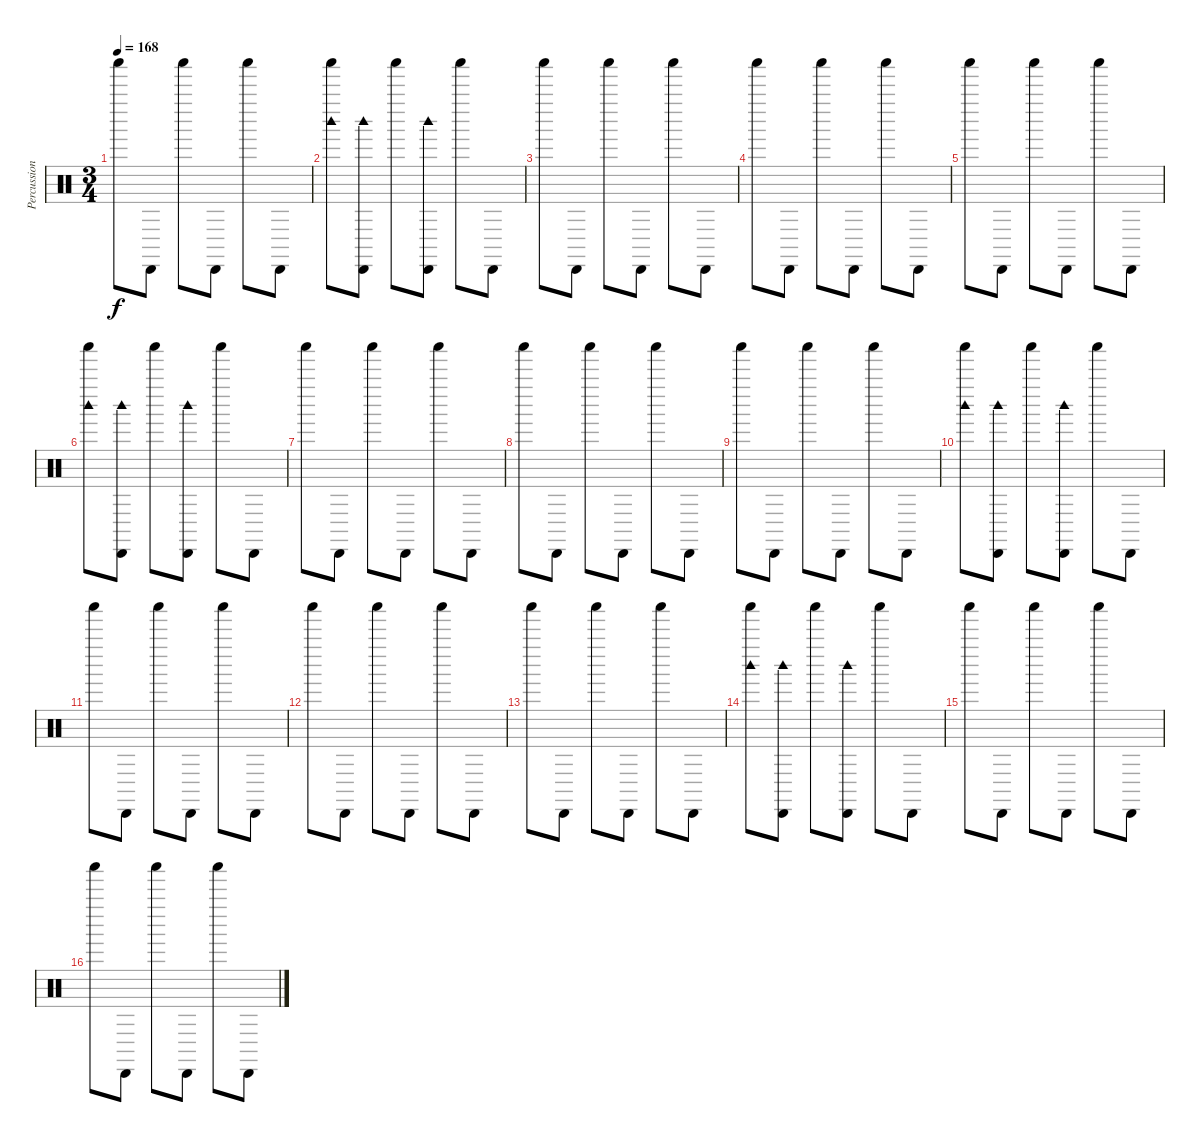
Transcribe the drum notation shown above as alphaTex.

\track ("Percussion" "Percussion") {instrument percussion}
\staff {score}
\articulation defaults
\ts (3 4)
\tempo 168
\clef neutral
\ks c "Shaker (hit)".8{dy f} "Cabasa (hit)".8 "Shaker (hit)".8 "Cabasa (hit)".8 "Shaker (hit)".8 "Cabasa (hit)".8
|
("Shaker (hit)" "Woodblock high (hit)").8 ("Cabasa (hit)" "Woodblock high (hit)").8 "Shaker (hit)".8 ("Cabasa (hit)" "Woodblock high (hit)").8 "Shaker (hit)".8 "Cabasa (hit)".8 |
"Shaker (hit)".8 "Cabasa (hit)".8 "Shaker (hit)".8 "Cabasa (hit)".8 "Shaker (hit)".8 "Cabasa (hit)".8 |
"Shaker (hit)".8 "Cabasa (hit)".8 "Shaker (hit)".8 "Cabasa (hit)".8 "Shaker (hit)".8 "Cabasa (hit)".8 |
"Shaker (hit)".8 "Cabasa (hit)".8 "Shaker (hit)".8 "Cabasa (hit)".8 "Shaker (hit)".8 "Cabasa (hit)".8 |
("Shaker (hit)" "Woodblock high (hit)").8 ("Cabasa (hit)" "Woodblock high (hit)").8 "Shaker (hit)".8 ("Cabasa (hit)" "Woodblock high (hit)").8 "Shaker (hit)".8 "Cabasa (hit)".8 |
"Shaker (hit)".8 "Cabasa (hit)".8 "Shaker (hit)".8 "Cabasa (hit)".8 "Shaker (hit)".8 "Cabasa (hit)".8 |
"Shaker (hit)".8 "Cabasa (hit)".8 "Shaker (hit)".8 "Cabasa (hit)".8 "Shaker (hit)".8 "Cabasa (hit)".8 |
"Shaker (hit)".8 "Cabasa (hit)".8 "Shaker (hit)".8 "Cabasa (hit)".8 "Shaker (hit)".8 "Cabasa (hit)".8 |
("Shaker (hit)" "Woodblock high (hit)").8 ("Cabasa (hit)" "Woodblock high (hit)").8 "Shaker (hit)".8 ("Cabasa (hit)" "Woodblock high (hit)").8 "Shaker (hit)".8 "Cabasa (hit)".8 |
"Shaker (hit)".8 "Cabasa (hit)".8 "Shaker (hit)".8 "Cabasa (hit)".8 "Shaker (hit)".8 "Cabasa (hit)".8 |
"Shaker (hit)".8 "Cabasa (hit)".8 "Shaker (hit)".8 "Cabasa (hit)".8 "Shaker (hit)".8 "Cabasa (hit)".8 |
"Shaker (hit)".8 "Cabasa (hit)".8 "Shaker (hit)".8 "Cabasa (hit)".8 "Shaker (hit)".8 "Cabasa (hit)".8 |
("Shaker (hit)" "Woodblock high (hit)").8 ("Cabasa (hit)" "Woodblock high (hit)").8 "Shaker (hit)".8 ("Cabasa (hit)" "Woodblock high (hit)").8 "Shaker (hit)".8 "Cabasa (hit)".8 |
"Shaker (hit)".8 "Cabasa (hit)".8 "Shaker (hit)".8 "Cabasa (hit)".8 "Shaker (hit)".8 "Cabasa (hit)".8 |
"Shaker (hit)".8 "Cabasa (hit)".8 "Shaker (hit)".8 "Cabasa (hit)".8 "Shaker (hit)".8 "Cabasa (hit)".8
